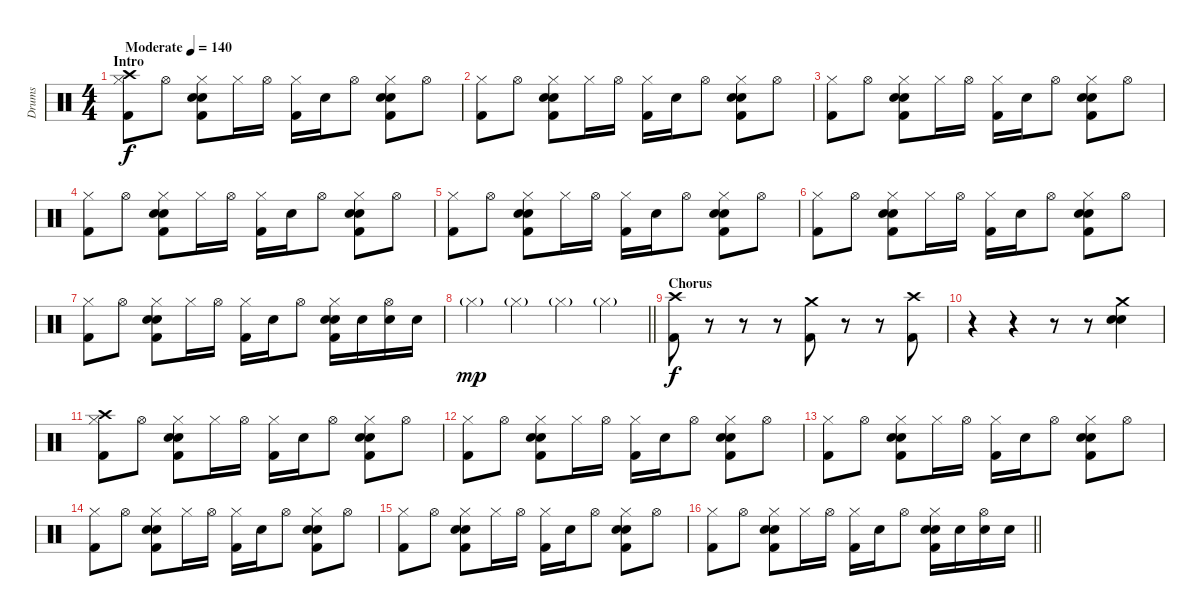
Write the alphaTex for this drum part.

\track ("Drums" "Drums") {instrument percussion}
\staff {score}
\articulation defaults
\ts (4 4)
\section ("" "Intro")
\tempo (140 "Moderate")
\clef neutral
\ks c
("Crash high (hit)" "Hi-Hat (closed)" "Kick (hit) 2").8{dy f} "Hi-Hat (open)".8 ("Hi-Hat (closed)" "Hand Clap (hit)" "Snare (hit) 2" "Kick (hit) 2").8 "Hi-Hat (closed)".16 "Hi-Hat (open)".16 ("Hi-Hat (closed)" "Kick (hit) 2").16 "Hand Clap (hit)".16 "Hi-Hat (open)".8 ("Hi-Hat (closed)" "Hand Clap (hit)" "Snare (hit) 2" "Kick (hit) 2").8 "Hi-Hat (open)".8 |
("Hi-Hat (closed)" "Kick (hit) 2").8 "Hi-Hat (open)".8 ("Hi-Hat (closed)" "Hand Clap (hit)" "Snare (hit) 2" "Kick (hit) 2").8 "Hi-Hat (closed)".16 "Hi-Hat (open)".16 ("Hi-Hat (closed)" "Kick (hit) 2").16 "Hand Clap (hit)".16 "Hi-Hat (open)".8 ("Hi-Hat (closed)" "Hand Clap (hit)" "Snare (hit) 2" "Kick (hit) 2").8 "Hi-Hat (open)".8 |
("Hi-Hat (closed)" "Kick (hit) 2").8 "Hi-Hat (open)".8 ("Hi-Hat (closed)" "Hand Clap (hit)" "Snare (hit) 2" "Kick (hit) 2").8 "Hi-Hat (closed)".16 "Hi-Hat (open)".16 ("Hi-Hat (closed)" "Kick (hit) 2").16 "Hand Clap (hit)".16 "Hi-Hat (open)".8 ("Hi-Hat (closed)" "Hand Clap (hit)" "Snare (hit) 2" "Kick (hit) 2").8 "Hi-Hat (open)".8 |
("Hi-Hat (closed)" "Kick (hit) 2").8 "Hi-Hat (open)".8 ("Hi-Hat (closed)" "Hand Clap (hit)" "Snare (hit) 2" "Kick (hit) 2").8 "Hi-Hat (closed)".16 "Hi-Hat (open)".16 ("Hi-Hat (closed)" "Kick (hit) 2").16 "Hand Clap (hit)".16 "Hi-Hat (open)".8 ("Hi-Hat (closed)" "Hand Clap (hit)" "Snare (hit) 2" "Kick (hit) 2").8 "Hi-Hat (open)".8 |
("Hi-Hat (closed)" "Kick (hit) 2").8 "Hi-Hat (open)".8 ("Hi-Hat (closed)" "Hand Clap (hit)" "Snare (hit) 2" "Kick (hit) 2").8 "Hi-Hat (closed)".16 "Hi-Hat (open)".16 ("Hi-Hat (closed)" "Kick (hit) 2").16 "Hand Clap (hit)".16 "Hi-Hat (open)".8 ("Hi-Hat (closed)" "Hand Clap (hit)" "Snare (hit) 2" "Kick (hit) 2").8 "Hi-Hat (open)".8 |
("Hi-Hat (closed)" "Kick (hit) 2").8 "Hi-Hat (open)".8 ("Hi-Hat (closed)" "Hand Clap (hit)" "Snare (hit) 2" "Kick (hit) 2").8 "Hi-Hat (closed)".16 "Hi-Hat (open)".16 ("Hi-Hat (closed)" "Kick (hit) 2").16 "Hand Clap (hit)".16 "Hi-Hat (open)".8 ("Hi-Hat (closed)" "Hand Clap (hit)" "Snare (hit) 2" "Kick (hit) 2").8 "Hi-Hat (open)".8 |
("Hi-Hat (closed)" "Kick (hit) 2").8 "Hi-Hat (open)".8 ("Hi-Hat (closed)" "Hand Clap (hit)" "Snare (hit) 2" "Kick (hit) 2").8 "Hi-Hat (closed)".16 "Hi-Hat (open)".16 ("Hi-Hat (closed)" "Kick (hit) 2").16 "Hand Clap (hit)".16 "Hi-Hat (open)".8 ("Hi-Hat (closed)" "Hand Clap (hit)" "Snare (hit) 2" "Kick (hit) 2").16 "Snare (hit) 2".16 ("Hi-Hat (open)" "Snare (hit) 2").16 "Snare (hit) 2".16 |
\barLineRight lightlight "Hi-Hat (closed)"{g}.4{dy mp} "Hi-Hat (closed)"{g}.4 "Hi-Hat (closed)"{g}.4 "Hi-Hat (closed)"{g}.4
|
\section ("" "Chorus")
("Crash high (hit)" "Kick (hit) 2").8{dy f} r.8 r.8 r.8 ("Crash medium (hit)" "Kick (hit) 2").8 r.8 r.8 ("Crash high (hit)" "Kick (hit) 2").8 |
r.4 r.4 r.8 r.8 ("Crash medium (hit)" "Hand Clap (hit)" "Snare (hit) 2").4 |
("Crash high (hit)" "Hi-Hat (closed)" "Kick (hit) 2").8 "Hi-Hat (open)".8 ("Hi-Hat (closed)" "Hand Clap (hit)" "Snare (hit) 2" "Kick (hit) 2").8 "Hi-Hat (closed)".16 "Hi-Hat (open)".16 ("Hi-Hat (closed)" "Kick (hit) 2").16 "Hand Clap (hit)".16 "Hi-Hat (open)".8 ("Hi-Hat (closed)" "Hand Clap (hit)" "Snare (hit) 2" "Kick (hit) 2").8 "Hi-Hat (open)".8 |
("Hi-Hat (closed)" "Kick (hit) 2").8 "Hi-Hat (open)".8 ("Hi-Hat (closed)" "Hand Clap (hit)" "Snare (hit) 2" "Kick (hit) 2").8 "Hi-Hat (closed)".16 "Hi-Hat (open)".16 ("Hi-Hat (closed)" "Kick (hit) 2").16 "Hand Clap (hit)".16 "Hi-Hat (open)".8 ("Hi-Hat (closed)" "Hand Clap (hit)" "Snare (hit) 2" "Kick (hit) 2").8 "Hi-Hat (open)".8 |
("Hi-Hat (closed)" "Kick (hit) 2").8 "Hi-Hat (open)".8 ("Hi-Hat (closed)" "Hand Clap (hit)" "Snare (hit) 2" "Kick (hit) 2").8 "Hi-Hat (closed)".16 "Hi-Hat (open)".16 ("Hi-Hat (closed)" "Kick (hit) 2").16 "Hand Clap (hit)".16 "Hi-Hat (open)".8 ("Hi-Hat (closed)" "Hand Clap (hit)" "Snare (hit) 2" "Kick (hit) 2").8 "Hi-Hat (open)".8 |
("Hi-Hat (closed)" "Kick (hit) 2").8 "Hi-Hat (open)".8 ("Hi-Hat (closed)" "Hand Clap (hit)" "Snare (hit) 2" "Kick (hit) 2").8 "Hi-Hat (closed)".16 "Hi-Hat (open)".16 ("Hi-Hat (closed)" "Kick (hit) 2").16 "Hand Clap (hit)".16 "Hi-Hat (open)".8 ("Hi-Hat (closed)" "Hand Clap (hit)" "Snare (hit) 2" "Kick (hit) 2").8 "Hi-Hat (open)".8 |
("Hi-Hat (closed)" "Kick (hit) 2").8 "Hi-Hat (open)".8 ("Hi-Hat (closed)" "Hand Clap (hit)" "Snare (hit) 2" "Kick (hit) 2").8 "Hi-Hat (closed)".16 "Hi-Hat (open)".16 ("Hi-Hat (closed)" "Kick (hit) 2").16 "Hand Clap (hit)".16 "Hi-Hat (open)".8 ("Hi-Hat (closed)" "Hand Clap (hit)" "Snare (hit) 2" "Kick (hit) 2").8 "Hi-Hat (open)".8 |
\barLineRight lightlight
("Hi-Hat (closed)" "Kick (hit) 2").8 "Hi-Hat (open)".8 ("Hi-Hat (closed)" "Hand Clap (hit)" "Snare (hit) 2" "Kick (hit) 2").8 "Hi-Hat (closed)".16 "Hi-Hat (open)".16 ("Hi-Hat (closed)" "Kick (hit) 2").16 "Hand Clap (hit)".16 "Hi-Hat (open)".8 ("Hi-Hat (closed)" "Hand Clap (hit)" "Snare (hit) 2" "Kick (hit) 2").16 "Snare (hit) 2".16 ("Hi-Hat (open)" "Snare (hit) 2").16 "Snare (hit) 2".16
